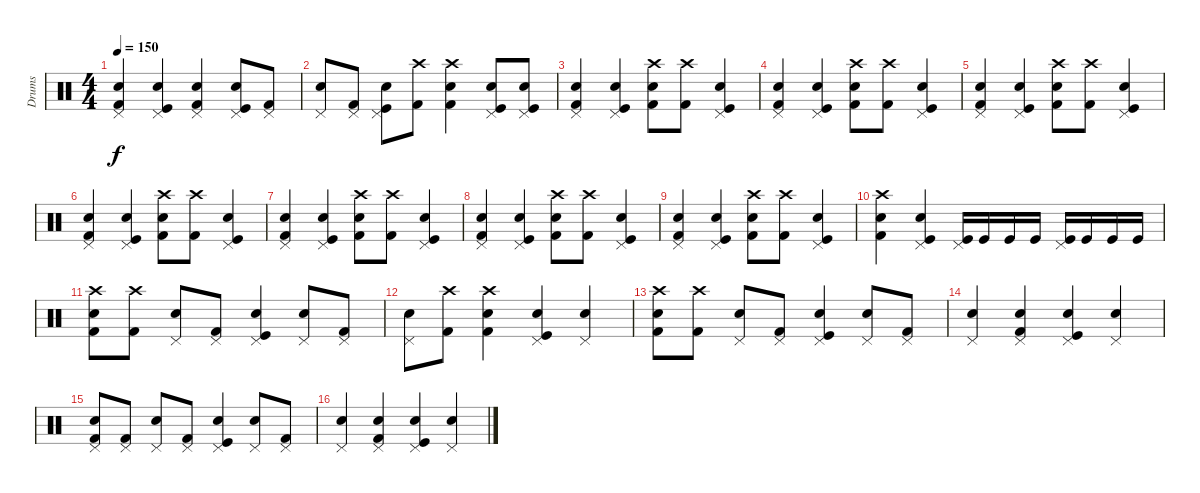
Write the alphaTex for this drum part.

\track ("Drums" "Drums") {instrument percussion}
\staff {score}
\articulation defaults
\ts (4 4)
\tempo 150
\clef neutral
\ks c
("Kick (hit) 2" "Electric Snare (hit)" "Pedal Hi-Hat (hit)").4{dy f} ("Kick (hit)" "Electric Snare (hit)" "Pedal Hi-Hat (hit)").4 ("Kick (hit) 2" "Electric Snare (hit)" "Pedal Hi-Hat (hit)").4 ("Kick (hit)" "Electric Snare (hit)" "Pedal Hi-Hat (hit)").8 ("Kick (hit) 2" "Pedal Hi-Hat (hit)").8 |
("Electric Snare (hit)" "Pedal Hi-Hat (hit)").8 ("Kick (hit) 2" "Pedal Hi-Hat (hit)").8 ("Kick (hit)" "Electric Snare (hit)" "Pedal Hi-Hat (hit)").8 ("Kick (hit) 2" "Crash high (hit)").8 ("Kick (hit) 2" "Electric Snare (hit)" "Crash high (hit)").4 ("Kick (hit)" "Electric Snare (hit)" "Pedal Hi-Hat (hit)").8 ("Kick (hit)" "Electric Snare (hit)" "Pedal Hi-Hat (hit)").8 |
("Kick (hit) 2" "Electric Snare (hit)" "Pedal Hi-Hat (hit)").4 ("Kick (hit)" "Electric Snare (hit)" "Pedal Hi-Hat (hit)").4 ("Kick (hit) 2" "Electric Snare (hit)" "Crash high (hit)").8 ("Kick (hit) 2" "Crash high (hit)").8 ("Kick (hit)" "Electric Snare (hit)" "Pedal Hi-Hat (hit)").4 |
("Kick (hit) 2" "Electric Snare (hit)" "Pedal Hi-Hat (hit)").4 ("Kick (hit)" "Electric Snare (hit)" "Pedal Hi-Hat (hit)").4 ("Kick (hit) 2" "Electric Snare (hit)" "Crash high (hit)").8 ("Kick (hit) 2" "Crash high (hit)").8 ("Kick (hit)" "Electric Snare (hit)" "Pedal Hi-Hat (hit)").4 |
("Kick (hit) 2" "Electric Snare (hit)" "Pedal Hi-Hat (hit)").4 ("Kick (hit)" "Electric Snare (hit)" "Pedal Hi-Hat (hit)").4 ("Kick (hit) 2" "Electric Snare (hit)" "Crash high (hit)").8 ("Kick (hit) 2" "Crash high (hit)").8 ("Kick (hit)" "Electric Snare (hit)" "Pedal Hi-Hat (hit)").4 |
("Kick (hit) 2" "Electric Snare (hit)" "Pedal Hi-Hat (hit)").4 ("Kick (hit)" "Electric Snare (hit)" "Pedal Hi-Hat (hit)").4 ("Kick (hit) 2" "Electric Snare (hit)" "Crash high (hit)").8 ("Kick (hit) 2" "Crash high (hit)").8 ("Kick (hit)" "Electric Snare (hit)" "Pedal Hi-Hat (hit)").4 |
("Kick (hit) 2" "Electric Snare (hit)" "Pedal Hi-Hat (hit)").4 ("Kick (hit)" "Electric Snare (hit)" "Pedal Hi-Hat (hit)").4 ("Kick (hit) 2" "Electric Snare (hit)" "Crash high (hit)").8 ("Kick (hit) 2" "Crash high (hit)").8 ("Kick (hit)" "Electric Snare (hit)" "Pedal Hi-Hat (hit)").4 |
("Kick (hit) 2" "Electric Snare (hit)" "Pedal Hi-Hat (hit)").4 ("Kick (hit)" "Electric Snare (hit)" "Pedal Hi-Hat (hit)").4 ("Kick (hit) 2" "Electric Snare (hit)" "Crash high (hit)").8 ("Kick (hit) 2" "Crash high (hit)").8 ("Kick (hit)" "Electric Snare (hit)" "Pedal Hi-Hat (hit)").4 |
("Kick (hit) 2" "Electric Snare (hit)" "Pedal Hi-Hat (hit)").4 ("Kick (hit)" "Electric Snare (hit)" "Pedal Hi-Hat (hit)").4 ("Kick (hit) 2" "Electric Snare (hit)" "Crash high (hit)").8 ("Kick (hit) 2" "Crash high (hit)").8 ("Kick (hit)" "Electric Snare (hit)" "Pedal Hi-Hat (hit)").4 |
("Kick (hit) 2" "Electric Snare (hit)" "Crash high (hit)").4 ("Kick (hit)" "Electric Snare (hit)" "Pedal Hi-Hat (hit)").4 ("Kick (hit)" "Pedal Hi-Hat (hit)").16 "Kick (hit)".16 "Kick (hit)".16 "Kick (hit)".16 ("Kick (hit)" "Pedal Hi-Hat (hit)").16 "Kick (hit)".16 "Kick (hit)".16 "Kick (hit)".16 |
("Kick (hit) 2" "Electric Snare (hit)" "Crash high (hit)").8 ("Kick (hit) 2" "Crash high (hit)").8 ("Electric Snare (hit)" "Pedal Hi-Hat (hit)").8 ("Kick (hit) 2" "Pedal Hi-Hat (hit)").8 ("Kick (hit)" "Electric Snare (hit)" "Pedal Hi-Hat (hit)").4 ("Electric Snare (hit)" "Pedal Hi-Hat (hit)").8 ("Kick (hit) 2" "Pedal Hi-Hat (hit)").8 |
("Electric Snare (hit)" "Pedal Hi-Hat (hit)").8 ("Kick (hit) 2" "Crash high (hit)").8 ("Kick (hit) 2" "Electric Snare (hit)" "Crash high (hit)").4 ("Kick (hit)" "Electric Snare (hit)" "Pedal Hi-Hat (hit)").4 ("Electric Snare (hit)" "Pedal Hi-Hat (hit)").4 |
("Kick (hit) 2" "Electric Snare (hit)" "Crash high (hit)").8 ("Kick (hit) 2" "Crash high (hit)").8 ("Electric Snare (hit)" "Pedal Hi-Hat (hit)").8 ("Kick (hit) 2" "Pedal Hi-Hat (hit)").8 ("Kick (hit)" "Electric Snare (hit)" "Pedal Hi-Hat (hit)").4 ("Electric Snare (hit)" "Pedal Hi-Hat (hit)").8 ("Kick (hit) 2" "Pedal Hi-Hat (hit)").8 |
("Electric Snare (hit)" "Pedal Hi-Hat (hit)").4 ("Kick (hit) 2" "Electric Snare (hit)" "Pedal Hi-Hat (hit)").4 ("Kick (hit)" "Electric Snare (hit)" "Pedal Hi-Hat (hit)").4 ("Electric Snare (hit)" "Pedal Hi-Hat (hit)").4 |
("Kick (hit) 2" "Electric Snare (hit)" "Pedal Hi-Hat (hit)").8 ("Kick (hit) 2" "Pedal Hi-Hat (hit)").8 ("Electric Snare (hit)" "Pedal Hi-Hat (hit)").8 ("Kick (hit) 2" "Pedal Hi-Hat (hit)").8 ("Kick (hit)" "Electric Snare (hit)" "Pedal Hi-Hat (hit)").4 ("Electric Snare (hit)" "Pedal Hi-Hat (hit)").8 ("Kick (hit) 2" "Pedal Hi-Hat (hit)").8 |
("Electric Snare (hit)" "Pedal Hi-Hat (hit)").4 ("Kick (hit) 2" "Electric Snare (hit)" "Pedal Hi-Hat (hit)").4 ("Kick (hit)" "Electric Snare (hit)" "Pedal Hi-Hat (hit)").4 ("Electric Snare (hit)" "Pedal Hi-Hat (hit)").4
